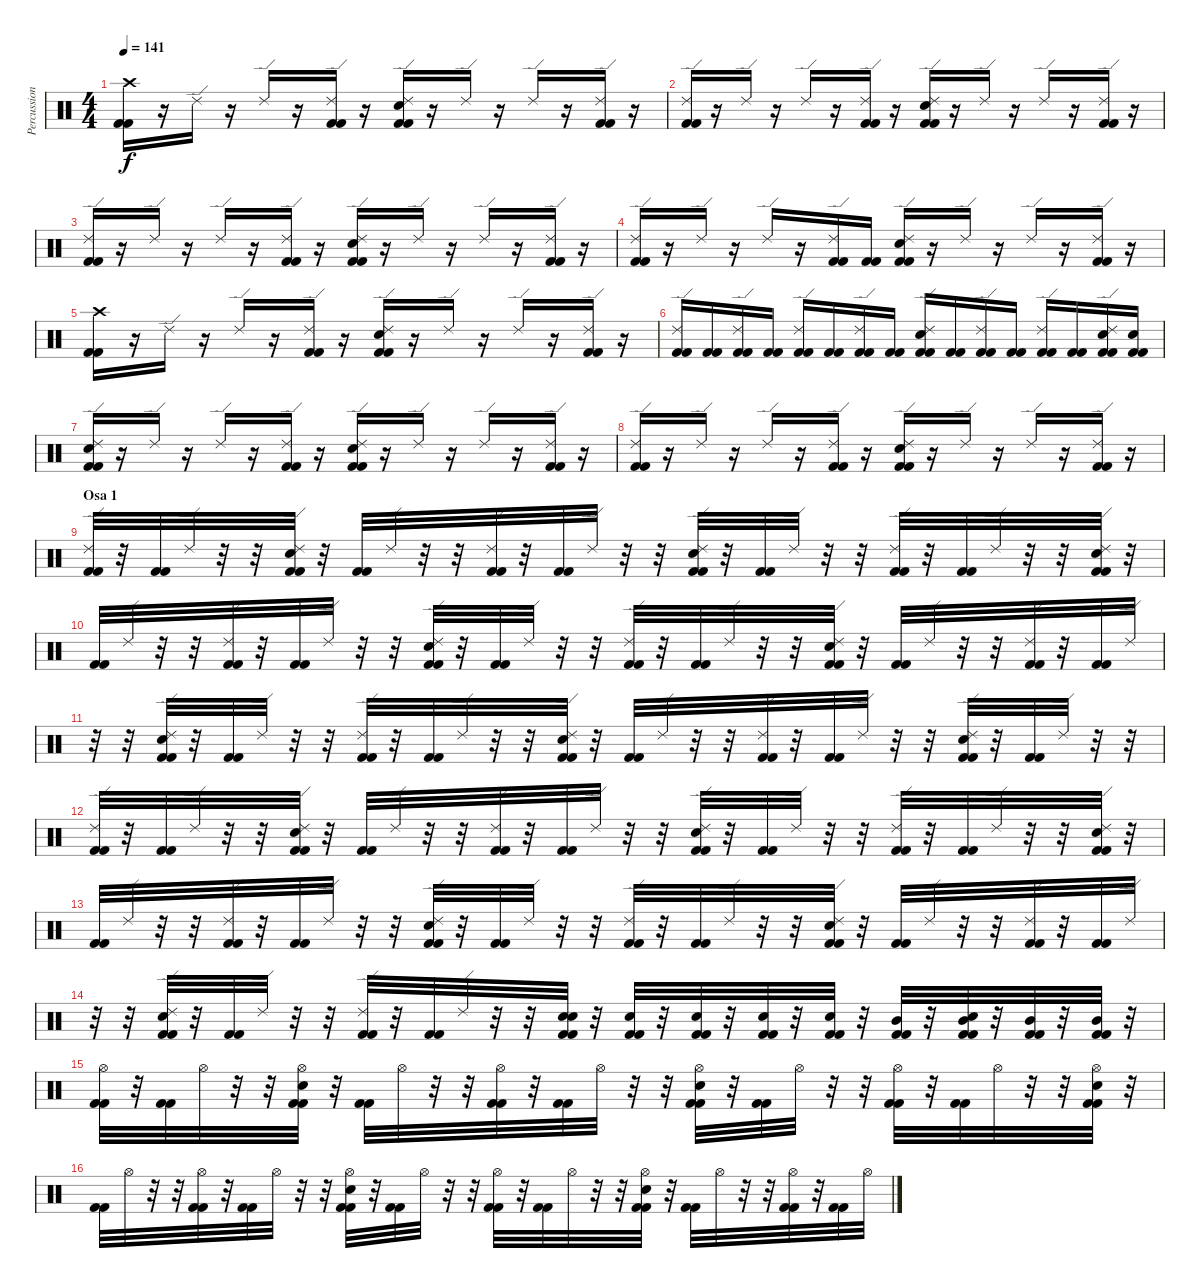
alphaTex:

\track ("Percussions" "Percussion") {instrument percussion}
\staff {score}
\articulation defaults
\ts (4 4)
\tempo 141
\clef neutral
\ks c
("Crash high (hit)" "Kick (hit) 2" "Kick (hit) 2").16{dy f} r.16 "Ride (edge) 2".16 r.16 "Ride (edge) 2".16 r.16 ("Ride (edge) 2" "Kick (hit) 2" "Kick (hit) 2").16 r.16 ("Ride (edge) 2" "Snare (hit) 2" "Kick (hit) 2" "Kick (hit) 2").16 r.16 "Ride (edge) 2".16 r.16 "Ride (edge) 2".16 r.16 ("Ride (edge) 2" "Kick (hit) 2" "Kick (hit) 2").16 r.16 |
("Ride (edge) 2" "Kick (hit) 2" "Kick (hit) 2").16 r.16 "Ride (edge) 2".16 r.16 "Ride (edge) 2".16 r.16 ("Ride (edge) 2" "Kick (hit) 2" "Kick (hit) 2").16 r.16 ("Ride (edge) 2" "Snare (hit) 2" "Kick (hit) 2" "Kick (hit) 2").16 r.16 "Ride (edge) 2".16 r.16 "Ride (edge) 2".16 r.16 ("Ride (edge) 2" "Kick (hit) 2" "Kick (hit) 2").16 r.16 |
("Ride (edge) 2" "Kick (hit) 2" "Kick (hit) 2").16 r.16 "Ride (edge) 2".16 r.16 "Ride (edge) 2".16 r.16 ("Ride (edge) 2" "Kick (hit) 2" "Kick (hit) 2").16 r.16 ("Ride (edge) 2" "Snare (hit) 2" "Kick (hit) 2" "Kick (hit) 2").16 r.16 "Ride (edge) 2".16 r.16 "Ride (edge) 2".16 r.16 ("Ride (edge) 2" "Kick (hit) 2" "Kick (hit) 2").16 r.16 |
("Ride (edge) 2" "Kick (hit) 2" "Kick (hit) 2").16 r.16 "Ride (edge) 2".16 r.16 "Ride (edge) 2".16 r.16 ("Ride (edge) 2" "Kick (hit) 2" "Kick (hit) 2").16 ("Kick (hit) 2" "Kick (hit) 2").16 ("Ride (edge) 2" "Snare (hit) 2" "Kick (hit) 2" "Kick (hit) 2").16 r.16 "Ride (edge) 2".16 r.16 "Ride (edge) 2".16 r.16 ("Ride (edge) 2" "Kick (hit) 2" "Kick (hit) 2").16 r.16 |
("Crash high (hit)" "Kick (hit) 2" "Kick (hit) 2").16 r.16 "Ride (edge) 2".16 r.16 "Ride (edge) 2".16 r.16 ("Ride (edge) 2" "Kick (hit) 2" "Kick (hit) 2").16 r.16 ("Ride (edge) 2" "Snare (hit) 2" "Kick (hit) 2" "Kick (hit) 2").16 r.16 "Ride (edge) 2".16 r.16 "Ride (edge) 2".16 r.16 ("Ride (edge) 2" "Kick (hit) 2" "Kick (hit) 2").16 r.16 |
("Ride (edge) 2" "Kick (hit) 2" "Kick (hit) 2").16 ("Kick (hit) 2" "Kick (hit) 2").16 ("Ride (edge) 2" "Kick (hit) 2" "Kick (hit) 2").16 ("Kick (hit) 2" "Kick (hit) 2").16 ("Ride (edge) 2" "Kick (hit) 2" "Kick (hit) 2").16 ("Kick (hit) 2" "Kick (hit) 2").16 ("Ride (edge) 2" "Kick (hit) 2" "Kick (hit) 2").16 ("Kick (hit) 2" "Kick (hit) 2").16 ("Ride (edge) 2" "Snare (hit) 2" "Kick (hit) 2" "Kick (hit) 2").16 ("Kick (hit) 2" "Kick (hit) 2").16 ("Ride (edge) 2" "Kick (hit) 2" "Kick (hit) 2").16 ("Kick (hit) 2" "Kick (hit) 2").16 ("Ride (edge) 2" "Kick (hit) 2" "Kick (hit) 2").16 ("Kick (hit) 2" "Kick (hit) 2").16 ("Ride (edge) 2" "Snare (hit) 2" "Kick (hit) 2" "Kick (hit) 2").16 ("Snare (hit) 2" "Kick (hit) 2" "Kick (hit) 2").16 |
("Ride (edge) 2" "Snare (hit) 2" "Kick (hit) 2" "Kick (hit) 2").16 r.16 "Ride (edge) 2".16 r.16 "Ride (edge) 2".16 r.16 ("Ride (edge) 2" "Kick (hit) 2" "Kick (hit) 2").16 r.16 ("Ride (edge) 2" "Snare (hit) 2" "Kick (hit) 2" "Kick (hit) 2").16 r.16 "Ride (edge) 2".16 r.16 "Ride (edge) 2".16 r.16 ("Ride (edge) 2" "Kick (hit) 2" "Kick (hit) 2").16 r.16 |
("Ride (edge) 2" "Kick (hit) 2" "Kick (hit) 2").16 r.16 "Ride (edge) 2".16 r.16 "Ride (edge) 2".16 r.16 ("Ride (edge) 2" "Kick (hit) 2" "Kick (hit) 2").16 r.16 ("Ride (edge) 2" "Snare (hit) 2" "Kick (hit) 2" "Kick (hit) 2").16 r.16 "Ride (edge) 2".16 r.16 "Ride (edge) 2".16 r.16 ("Ride (edge) 2" "Kick (hit) 2" "Kick (hit) 2").16 r.16 |
\section ("" "Osa 1")
("Ride (edge) 2" "Kick (hit) 2" "Kick (hit) 2").32 r.32 ("Kick (hit) 2" "Kick (hit) 2").32 "Ride (edge) 2".32 r.32 r.32 ("Ride (edge) 2" "Snare (hit) 2" "Kick (hit) 2" "Kick (hit) 2").32 r.32 ("Kick (hit) 2" "Kick (hit) 2").32 "Ride (edge) 2".32 r.32 r.32 ("Ride (edge) 2" "Kick (hit) 2" "Kick (hit) 2").32 r.32 ("Kick (hit) 2" "Kick (hit) 2").32 "Ride (edge) 2".32 r.32 r.32 ("Ride (edge) 2" "Snare (hit) 2" "Kick (hit) 2" "Kick (hit) 2").32 r.32 ("Kick (hit) 2" "Kick (hit) 2").32 "Ride (edge) 2".32 r.32 r.32 ("Ride (edge) 2" "Kick (hit) 2" "Kick (hit) 2").32 r.32 ("Kick (hit) 2" "Kick (hit) 2").32 "Ride (edge) 2".32 r.32 r.32 ("Ride (edge) 2" "Snare (hit) 2" "Kick (hit) 2" "Kick (hit) 2").32 r.32 |
("Kick (hit) 2" "Kick (hit) 2").32 "Ride (edge) 2".32 r.32 r.32 ("Ride (edge) 2" "Kick (hit) 2" "Kick (hit) 2").32 r.32 ("Kick (hit) 2" "Kick (hit) 2").32 "Ride (edge) 2".32 r.32 r.32 ("Ride (edge) 2" "Snare (hit) 2" "Kick (hit) 2" "Kick (hit) 2").32 r.32 ("Kick (hit) 2" "Kick (hit) 2").32 "Ride (edge) 2".32 r.32 r.32 ("Ride (edge) 2" "Kick (hit) 2" "Kick (hit) 2").32 r.32 ("Kick (hit) 2" "Kick (hit) 2").32 "Ride (edge) 2".32 r.32 r.32 ("Ride (edge) 2" "Snare (hit) 2" "Kick (hit) 2" "Kick (hit) 2").32 r.32 ("Kick (hit) 2" "Kick (hit) 2").32 "Ride (edge) 2".32 r.32 r.32 ("Ride (edge) 2" "Kick (hit) 2" "Kick (hit) 2").32 r.32 ("Kick (hit) 2" "Kick (hit) 2").32 "Ride (edge) 2".32 |
r.32 r.32 ("Ride (edge) 2" "Snare (hit) 2" "Kick (hit) 2" "Kick (hit) 2").32 r.32 ("Kick (hit) 2" "Kick (hit) 2").32 "Ride (edge) 2".32 r.32 r.32 ("Ride (edge) 2" "Kick (hit) 2" "Kick (hit) 2").32 r.32 ("Kick (hit) 2" "Kick (hit) 2").32 "Ride (edge) 2".32 r.32 r.32 ("Ride (edge) 2" "Snare (hit) 2" "Kick (hit) 2" "Kick (hit) 2").32 r.32 ("Kick (hit) 2" "Kick (hit) 2").32 "Ride (edge) 2".32 r.32 r.32 ("Ride (edge) 2" "Kick (hit) 2" "Kick (hit) 2").32 r.32 ("Kick (hit) 2" "Kick (hit) 2").32 "Ride (edge) 2".32 r.32 r.32 ("Ride (edge) 2" "Snare (hit) 2" "Kick (hit) 2" "Kick (hit) 2").32 r.32 ("Kick (hit) 2" "Kick (hit) 2").32 "Ride (edge) 2".32 r.32 r.32 |
("Ride (edge) 2" "Kick (hit) 2" "Kick (hit) 2").32 r.32 ("Kick (hit) 2" "Kick (hit) 2").32 "Ride (edge) 2".32 r.32 r.32 ("Ride (edge) 2" "Snare (hit) 2" "Kick (hit) 2" "Kick (hit) 2").32 r.32 ("Kick (hit) 2" "Kick (hit) 2").32 "Ride (edge) 2".32 r.32 r.32 ("Ride (edge) 2" "Kick (hit) 2" "Kick (hit) 2").32 r.32 ("Kick (hit) 2" "Kick (hit) 2").32 "Ride (edge) 2".32 r.32 r.32 ("Ride (edge) 2" "Snare (hit) 2" "Kick (hit) 2" "Kick (hit) 2").32 r.32 ("Kick (hit) 2" "Kick (hit) 2").32 "Ride (edge) 2".32 r.32 r.32 ("Ride (edge) 2" "Kick (hit) 2" "Kick (hit) 2").32 r.32 ("Kick (hit) 2" "Kick (hit) 2").32 "Ride (edge) 2".32 r.32 r.32 ("Ride (edge) 2" "Snare (hit) 2" "Kick (hit) 2" "Kick (hit) 2").32 r.32 |
("Kick (hit) 2" "Kick (hit) 2").32 "Ride (edge) 2".32 r.32 r.32 ("Ride (edge) 2" "Kick (hit) 2" "Kick (hit) 2").32 r.32 ("Kick (hit) 2" "Kick (hit) 2").32 "Ride (edge) 2".32 r.32 r.32 ("Ride (edge) 2" "Snare (hit) 2" "Kick (hit) 2" "Kick (hit) 2").32 r.32 ("Kick (hit) 2" "Kick (hit) 2").32 "Ride (edge) 2".32 r.32 r.32 ("Ride (edge) 2" "Kick (hit) 2" "Kick (hit) 2").32 r.32 ("Kick (hit) 2" "Kick (hit) 2").32 "Ride (edge) 2".32 r.32 r.32 ("Ride (edge) 2" "Snare (hit) 2" "Kick (hit) 2" "Kick (hit) 2").32 r.32 ("Kick (hit) 2" "Kick (hit) 2").32 "Ride (edge) 2".32 r.32 r.32 ("Ride (edge) 2" "Kick (hit) 2" "Kick (hit) 2").32 r.32 ("Kick (hit) 2" "Kick (hit) 2").32 "Ride (edge) 2".32 |
r.32 r.32 ("Ride (edge) 2" "Snare (hit) 2" "Kick (hit) 2" "Kick (hit) 2").32 r.32 ("Kick (hit) 2" "Kick (hit) 2").32 "Ride (edge) 2".32 r.32 r.32 ("Ride (edge) 2" "Kick (hit) 2" "Kick (hit) 2").32 r.32 ("Kick (hit) 2" "Kick (hit) 2").32 "Ride (edge) 2".32 r.32 r.32 ("Snare (hit) 2" "Snare (hit) 2" "Kick (hit) 2" "Kick (hit) 2").32 r.32 ("Snare (hit) 2" "Kick (hit) 2" "Kick (hit) 2").32 r.32 ("Snare (hit) 2" "Kick (hit) 2" "Kick (hit) 2").32 r.32 ("Snare (hit) 2" "Kick (hit) 2" "Kick (hit) 2").32 r.32 ("Snare (hit) 2" "Kick (hit) 2" "Kick (hit) 2").32 r.32 ("Mid Tom (hit)" "Kick (hit) 2" "Kick (hit) 2").32 r.32 ("Mid Tom (hit)" "Snare (hit) 2" "Kick (hit) 2" "Kick (hit) 2").32 r.32 ("Mid Tom (hit)" "Kick (hit) 2" "Kick (hit) 2").32 r.32 ("Mid Tom (hit)" "Kick (hit) 2" "Kick (hit) 2").32 r.32 |
("Hi-Hat (open)" "Kick (hit) 2" "Kick (hit) 2").32 r.32 ("Kick (hit) 2" "Kick (hit) 2").32 "Hi-Hat (open)".32 r.32 r.32 ("Hi-Hat (open)" "Snare (hit) 2" "Kick (hit) 2" "Kick (hit) 2").32 r.32 ("Kick (hit) 2" "Kick (hit) 2").32 "Hi-Hat (open)".32 r.32 r.32 ("Hi-Hat (open)" "Kick (hit) 2" "Kick (hit) 2").32 r.32 ("Kick (hit) 2" "Kick (hit) 2").32 "Hi-Hat (open)".32 r.32 r.32 ("Hi-Hat (open)" "Snare (hit) 2" "Kick (hit) 2" "Kick (hit) 2").32 r.32 ("Kick (hit) 2" "Kick (hit) 2").32 "Hi-Hat (open)".32 r.32 r.32 ("Hi-Hat (open)" "Kick (hit) 2" "Kick (hit) 2").32 r.32 ("Kick (hit) 2" "Kick (hit) 2").32 "Hi-Hat (open)".32 r.32 r.32 ("Hi-Hat (open)" "Snare (hit) 2" "Kick (hit) 2" "Kick (hit) 2").32 r.32 |
("Kick (hit) 2" "Kick (hit) 2").32 "Hi-Hat (open)".32 r.32 r.32 ("Hi-Hat (open)" "Kick (hit) 2" "Kick (hit) 2").32 r.32 ("Kick (hit) 2" "Kick (hit) 2").32 "Hi-Hat (open)".32 r.32 r.32 ("Hi-Hat (open)" "Snare (hit) 2" "Kick (hit) 2" "Kick (hit) 2").32 r.32 ("Kick (hit) 2" "Kick (hit) 2").32 "Hi-Hat (open)".32 r.32 r.32 ("Hi-Hat (open)" "Kick (hit) 2" "Kick (hit) 2").32 r.32 ("Kick (hit) 2" "Kick (hit) 2").32 "Hi-Hat (open)".32 r.32 r.32 ("Hi-Hat (open)" "Snare (hit) 2" "Kick (hit) 2" "Kick (hit) 2").32 r.32 ("Kick (hit) 2" "Kick (hit) 2").32 "Hi-Hat (open)".32 r.32 r.32 ("Hi-Hat (open)" "Kick (hit) 2" "Kick (hit) 2").32 r.32 ("Kick (hit) 2" "Kick (hit) 2").32 "Hi-Hat (open)".32
